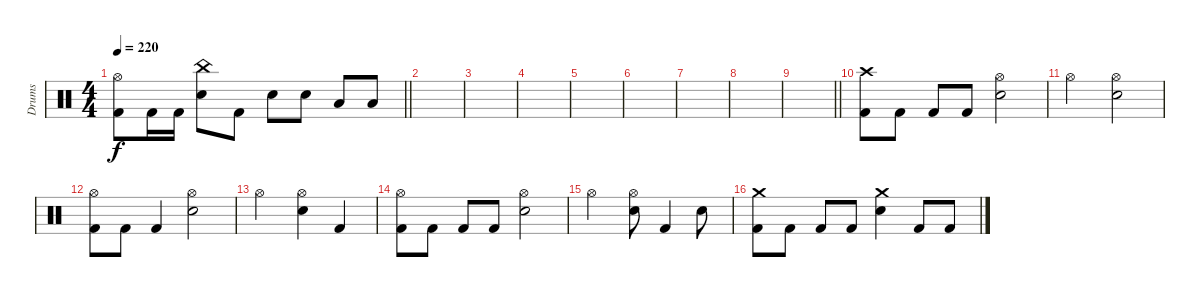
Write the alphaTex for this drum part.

\track ("Drums" "Drums") {instrument percussion}
\staff {score}
\articulation defaults
\ts (4 4)
\tempo 220
\clef neutral
\barLineRight lightlight
\ks c
("Hi-Hat (open)" "Kick (hit) 2").8{dy f} "Kick (hit) 2".16 "Kick (hit) 2".16 ("China (hit)" "Snare (hit) 2").8 "Kick (hit) 2".8 "Snare (hit) 2".8 "Snare (hit) 2".8 "Low Tom (hit)".8 "Low Tom (hit)".8 |
|
|
|
|
|
|
|
\barLineRight lightlight
|
("Crash high (hit)" "Kick (hit) 2").8 "Kick (hit) 2".8 "Kick (hit) 2".8 "Kick (hit) 2".8 ("Hi-Hat (open)" "Snare (hit) 2").2 |
"Hi-Hat (open)".2 ("Hi-Hat (open)" "Snare (hit) 2").2 |
("Hi-Hat (open)" "Kick (hit) 2").8 "Kick (hit) 2".8 "Kick (hit) 2".4 ("Hi-Hat (open)" "Snare (hit) 2").2 |
"Hi-Hat (open)".2 ("Hi-Hat (open)" "Snare (hit) 2").4 "Kick (hit) 2".4 |
("Hi-Hat (open)" "Kick (hit) 2").8 "Kick (hit) 2".8 "Kick (hit) 2".8 "Kick (hit) 2".8 ("Hi-Hat (open)" "Snare (hit) 2").2 |
"Hi-Hat (open)".2 ("Hi-Hat (open)" "Snare (hit) 2").8 "Kick (hit) 2".4 "Snare (hit) 2".8 |
("Crash medium (hit)" "Kick (hit) 2").8 "Kick (hit) 2".8 "Kick (hit) 2".8 "Kick (hit) 2".8 ("Crash medium (hit)" "Snare (hit) 2").4 "Kick (hit) 2".8 "Kick (hit) 2".8
